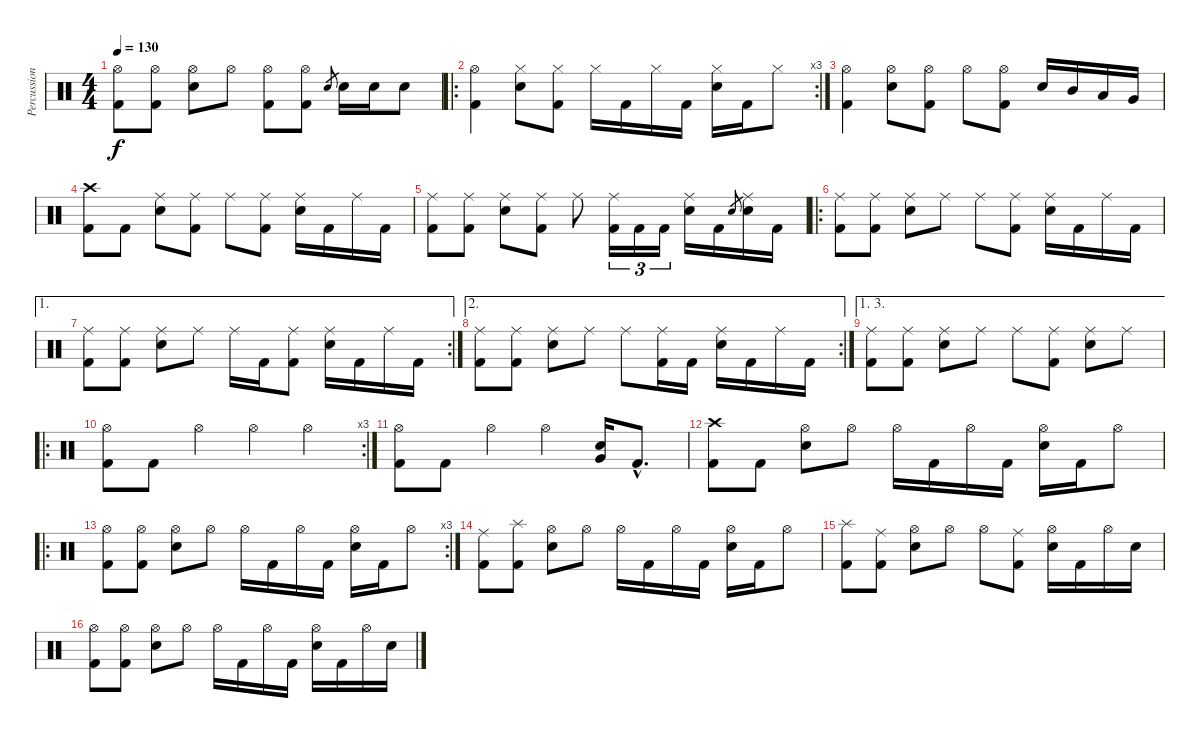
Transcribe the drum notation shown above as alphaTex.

\track ("Percussion" "Percussion") {instrument percussion}
\staff {score}
\articulation defaults
\ts (4 4)
\tempo 130
\clef neutral
\ks c
("Hi-Hat (open)" "Kick (hit) 2").8{dy f} ("Hi-Hat (open)" "Kick (hit) 2").8 ("Hi-Hat (open)" "Electric Snare (hit)").8 "Hi-Hat (open)".8 ("Hi-Hat (open)" "Kick (hit) 2").8 ("Hi-Hat (open)" "Kick (hit) 2").8 "Electric Snare (hit)".8{gr} "Electric Snare (hit)".16 "Electric Snare (hit)".16 "Electric Snare (hit)".8 |
\ro
\rc 3
("Hi-Hat (open)" "Kick (hit) 2").4 ("Hi-Hat (closed)" "Electric Snare (hit)").8 ("Hi-Hat (closed)" "Kick (hit) 2").8 "Hi-Hat (closed)".16 "Kick (hit) 2".16 "Hi-Hat (closed)".16 "Kick (hit) 2".16 ("Hi-Hat (closed)" "Electric Snare (hit)").16 "Kick (hit) 2".16 "Hi-Hat (closed)".8 |
("Hi-Hat (open)" "Kick (hit) 2").4 ("Hi-Hat (open)" "Electric Snare (hit)").8 ("Hi-Hat (open)" "Kick (hit) 2").8 "Hi-Hat (open)".8 ("Hi-Hat (open)" "Kick (hit) 2").8 "Electric Snare (hit)".16 "Mid Tom (hit)".16 "Low Tom (hit)".16 "Very Low Tom (hit)".16 |
("Crash high (hit)" "Kick (hit) 2").8 "Kick (hit) 2".8 ("Ride (middle)" "Electric Snare (hit)").8 ("Ride (middle)" "Kick (hit) 2").8 "Ride (middle)".8 ("Ride (middle)" "Kick (hit) 2").8 ("Ride (middle)" "Electric Snare (hit)").16 "Kick (hit) 2".16 "Ride (middle)".16 "Kick (hit) 2".16 |
("Ride (middle)" "Kick (hit) 2").8 ("Ride (middle)" "Kick (hit) 2").8 ("Ride (middle)" "Electric Snare (hit)").8 ("Ride (middle)" "Kick (hit) 2").8 "Ride (middle)".8 ("Ride (middle)" "Kick (hit) 2").16{tu (3 2)} "Kick (hit) 2".16{tu (3 2)} "Kick (hit) 2".16{tu (3 2)} ("Ride (middle)" "Electric Snare (hit)").16 "Kick (hit) 2".16 "Electric Snare (hit)".8{gr} ("Ride (middle)" "Electric Snare (hit)").16 "Kick (hit) 2".16 |
\ro
("Ride (middle)" "Kick (hit) 2").8 ("Ride (middle)" "Kick (hit) 2").8 ("Ride (middle)" "Electric Snare (hit)").8 "Ride (middle)".8 "Ride (middle)".8 ("Ride (middle)" "Kick (hit) 2").8 ("Ride (middle)" "Electric Snare (hit)").16 "Kick (hit) 2".16 "Ride (middle)".16 "Kick (hit) 2".16 |
\ae 1
\rc 2
("Ride (middle)" "Kick (hit) 2").8 ("Ride (middle)" "Kick (hit) 2").8 ("Ride (middle)" "Electric Snare (hit)").8 "Ride (middle)".8 "Ride (middle)".16 "Kick (hit) 2".16 ("Ride (middle)" "Kick (hit) 2").8 ("Ride (middle)" "Electric Snare (hit)").16 "Kick (hit) 2".16 "Ride (middle)".16 "Kick (hit) 2".16 |
\ae 2
\rc 2
("Ride (middle)" "Kick (hit) 2").8 ("Ride (middle)" "Kick (hit) 2").8 ("Ride (middle)" "Electric Snare (hit)").8 "Ride (middle)".8 "Ride (middle)".8 ("Ride (middle)" "Kick (hit) 2").16 "Kick (hit) 2".16 ("Ride (middle)" "Electric Snare (hit)").16 "Kick (hit) 2".16 "Ride (middle)".16 "Kick (hit) 2".16 |
\ae (1 3)
("Ride (middle)" "Kick (hit) 2").8 ("Ride (middle)" "Kick (hit) 2").8 ("Ride (middle)" "Electric Snare (hit)").8 "Ride (middle)".8 "Ride (middle)".8 ("Ride (middle)" "Kick (hit) 2").8 ("Ride (middle)" "Electric Snare (hit)").8 "Ride (middle)".8 |
\ro
\rc 3
("Hi-Hat (open)" "Kick (hit) 2").8 "Kick (hit) 2".8 "Hi-Hat (open)".4 "Hi-Hat (open)".4 "Hi-Hat (open)".4 |
("Hi-Hat (open)" "Kick (hit) 2").8 "Kick (hit) 2".8 "Hi-Hat (open)".4 "Hi-Hat (open)".4 ("Very Low Tom (hit)" "Electric Snare (hit)").16 "Kick (hit) 2"{hac}.8{d} |
("Crash high (hit)" "Kick (hit) 2").8 "Kick (hit) 2".8 ("Hi-Hat (open)" "Electric Snare (hit)").8 "Hi-Hat (open)".8 "Hi-Hat (open)".16 "Kick (hit) 2".16 "Hi-Hat (open)".16 "Kick (hit) 2".16 ("Hi-Hat (open)" "Electric Snare (hit)").16 "Kick (hit) 2".16 "Hi-Hat (open)".8 |
\ro
\rc 3
("Hi-Hat (open)" "Kick (hit) 2").8 ("Hi-Hat (open)" "Kick (hit) 2").8 ("Hi-Hat (open)" "Electric Snare (hit)").8 "Hi-Hat (open)".8 "Hi-Hat (open)".16 "Kick (hit) 2".16 "Hi-Hat (open)".16 "Kick (hit) 2".16 ("Hi-Hat (open)" "Electric Snare (hit)").16 "Kick (hit) 2".16 "Hi-Hat (open)".8 |
("Ride (middle)" "Kick (hit) 2").8 ("Splash (hit)" "Kick (hit) 2").8 ("Hi-Hat (open)" "Electric Snare (hit)").8 "Hi-Hat (open)".8 "Hi-Hat (open)".16 "Kick (hit) 2".16 "Hi-Hat (open)".16 "Kick (hit) 2".16 ("Hi-Hat (open)" "Electric Snare (hit)").16 "Kick (hit) 2".16 "Hi-Hat (open)".8 |
("Splash (hit)" "Kick (hit) 2").8 ("Ride (middle)" "Kick (hit) 2").8 ("Hi-Hat (open)" "Electric Snare (hit)").8 "Hi-Hat (open)".8 "Hi-Hat (open)".8 ("Ride (middle)" "Kick (hit) 2").8 ("Hi-Hat (open)" "Electric Snare (hit)").16 "Kick (hit) 2".16 "Hi-Hat (open)".16 "Electric Snare (hit)".16 |
("Hi-Hat (open)" "Kick (hit) 2").8 ("Hi-Hat (open)" "Kick (hit) 2").8 ("Hi-Hat (open)" "Electric Snare (hit)").8 "Hi-Hat (open)".8 "Hi-Hat (open)".16 "Kick (hit) 2".16 "Hi-Hat (open)".16 "Kick (hit) 2".16 ("Hi-Hat (open)" "Electric Snare (hit)").16 "Kick (hit) 2".16 "Hi-Hat (open)".16 "Electric Snare (hit)".16
